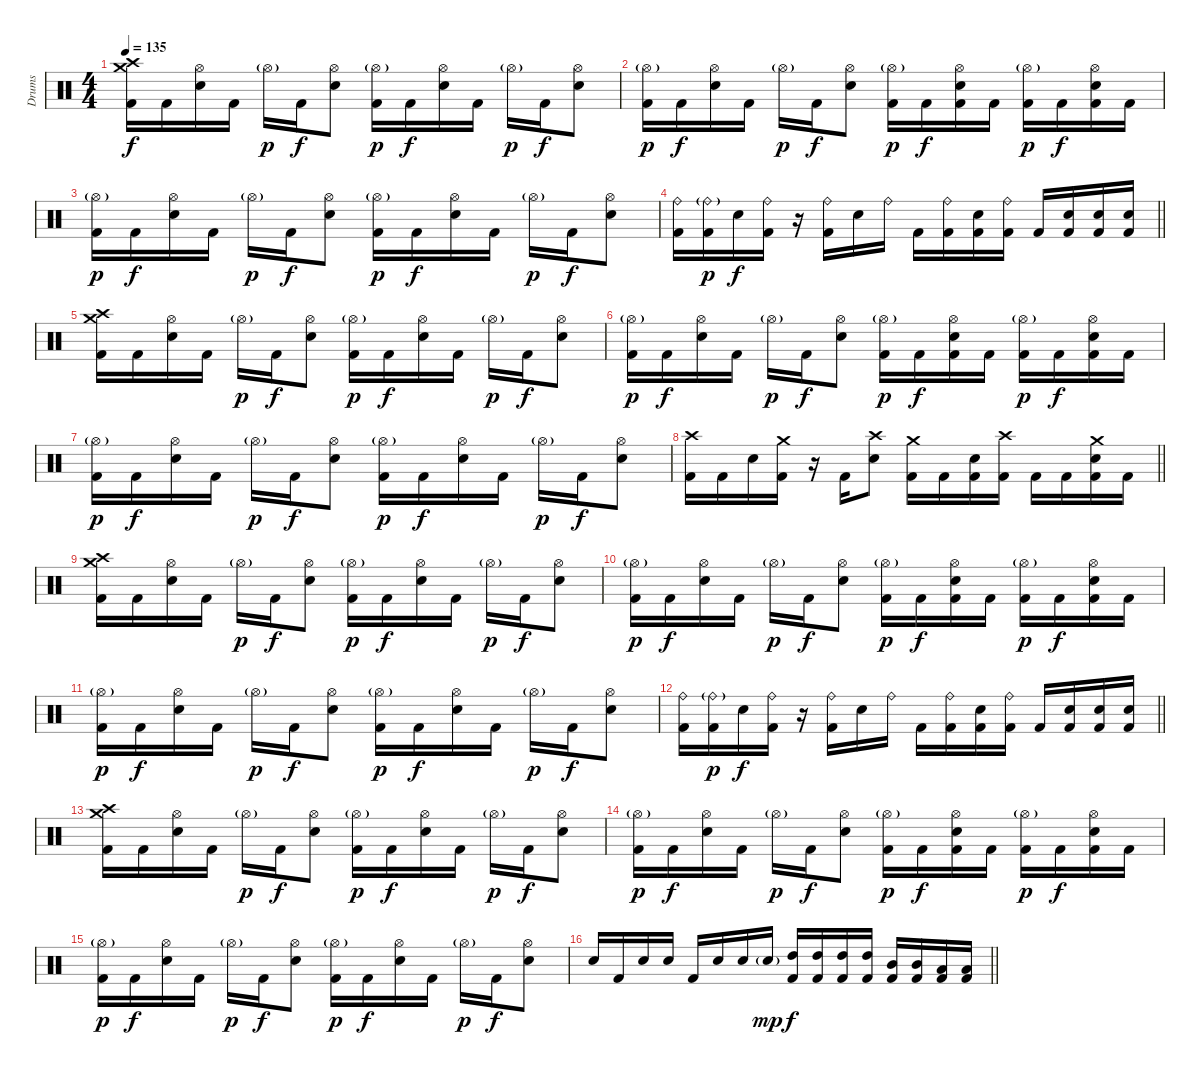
\track ("Drums" "Drums") {instrument percussion}
\staff {score}
\articulation defaults
\ts (4 4)
\tempo 135
\clef neutral
\ks c
("Crash high (hit)" "Crash medium (hit)" "Kick (hit) 2").16{dy f} "Kick (hit) 2".16 ("Hi-Hat (open)" "Electric Snare (hit)").16 "Kick (hit) 2".16 "Hi-Hat (open)"{g}.16{dy p} "Kick (hit) 2".16{dy f} ("Hi-Hat (open)" "Electric Snare (hit)").8 ("Hi-Hat (open)"{g} "Kick (hit) 2").16{dy p} "Kick (hit) 2".16{dy f} ("Hi-Hat (open)" "Electric Snare (hit)").16 "Kick (hit) 2".16 "Hi-Hat (open)"{g}.16{dy p} "Kick (hit) 2".16{dy f} ("Hi-Hat (open)" "Electric Snare (hit)").8 |
("Hi-Hat (open)"{g} "Kick (hit) 2").16{dy p} "Kick (hit) 2".16{dy f} ("Hi-Hat (open)" "Electric Snare (hit)").16 "Kick (hit) 2".16 "Hi-Hat (open)"{g}.16{dy p} "Kick (hit) 2".16{dy f} ("Hi-Hat (open)" "Electric Snare (hit)").8 ("Hi-Hat (open)"{g} "Kick (hit) 2").16{dy p} "Kick (hit) 2".16{dy f} ("Hi-Hat (open)" "Electric Snare (hit)" "Kick (hit) 2").16 "Kick (hit) 2".16 ("Hi-Hat (open)"{g} "Kick (hit) 2").16{dy p} "Kick (hit) 2".16{dy f} ("Hi-Hat (open)" "Electric Snare (hit)" "Kick (hit) 2").16 "Kick (hit) 2".16 |
("Hi-Hat (open)"{g} "Kick (hit) 2").16{dy p} "Kick (hit) 2".16{dy f} ("Hi-Hat (open)" "Electric Snare (hit)").16 "Kick (hit) 2".16 "Hi-Hat (open)"{g}.16{dy p} "Kick (hit) 2".16{dy f} ("Hi-Hat (open)" "Electric Snare (hit)").8 ("Hi-Hat (open)"{g} "Kick (hit) 2").16{dy p} "Kick (hit) 2".16{dy f} ("Hi-Hat (open)" "Electric Snare (hit)").16 "Kick (hit) 2".16 "Hi-Hat (open)"{g}.16{dy p} "Kick (hit) 2".16{dy f} ("Hi-Hat (open)" "Electric Snare (hit)").8 |
\barLineRight lightlight
("Ride (bell)" "Kick (hit) 2").16 ("Ride (bell)"{g} "Kick (hit) 2").16{dy p} "Electric Snare (hit)".16{dy f} ("Ride (bell)" "Kick (hit) 2").16 r.16 ("Ride (bell)" "Kick (hit) 2").16 "Electric Snare (hit)".16 "Ride (bell)".16 "Kick (hit) 2".16 ("Ride (bell)" "Kick (hit) 2").16 ("Electric Snare (hit)" "Kick (hit) 2").16 ("Ride (bell)" "Kick (hit) 2").16 "Kick (hit) 2".16 ("Electric Snare (hit)" "Kick (hit) 2").16 ("Electric Snare (hit)" "Kick (hit) 2").16 ("Electric Snare (hit)" "Kick (hit) 2").16 |
("Crash high (hit)" "Crash medium (hit)" "Kick (hit) 2").16 "Kick (hit) 2".16 ("Hi-Hat (open)" "Electric Snare (hit)").16 "Kick (hit) 2".16 "Hi-Hat (open)"{g}.16{dy p} "Kick (hit) 2".16{dy f} ("Hi-Hat (open)" "Electric Snare (hit)").8 ("Hi-Hat (open)"{g} "Kick (hit) 2").16{dy p} "Kick (hit) 2".16{dy f} ("Hi-Hat (open)" "Electric Snare (hit)").16 "Kick (hit) 2".16 "Hi-Hat (open)"{g}.16{dy p} "Kick (hit) 2".16{dy f} ("Hi-Hat (open)" "Electric Snare (hit)").8 |
("Hi-Hat (open)"{g} "Kick (hit) 2").16{dy p} "Kick (hit) 2".16{dy f} ("Hi-Hat (open)" "Electric Snare (hit)").16 "Kick (hit) 2".16 "Hi-Hat (open)"{g}.16{dy p} "Kick (hit) 2".16{dy f} ("Hi-Hat (open)" "Electric Snare (hit)").8 ("Hi-Hat (open)"{g} "Kick (hit) 2").16{dy p} "Kick (hit) 2".16{dy f} ("Hi-Hat (open)" "Electric Snare (hit)" "Kick (hit) 2").16 "Kick (hit) 2".16 ("Hi-Hat (open)"{g} "Kick (hit) 2").16{dy p} "Kick (hit) 2".16{dy f} ("Hi-Hat (open)" "Electric Snare (hit)" "Kick (hit) 2").16 "Kick (hit) 2".16 |
("Hi-Hat (open)"{g} "Kick (hit) 2").16{dy p} "Kick (hit) 2".16{dy f} ("Hi-Hat (open)" "Electric Snare (hit)").16 "Kick (hit) 2".16 "Hi-Hat (open)"{g}.16{dy p} "Kick (hit) 2".16{dy f} ("Hi-Hat (open)" "Electric Snare (hit)").8 ("Hi-Hat (open)"{g} "Kick (hit) 2").16{dy p} "Kick (hit) 2".16{dy f} ("Hi-Hat (open)" "Electric Snare (hit)").16 "Kick (hit) 2".16 "Hi-Hat (open)"{g}.16{dy p} "Kick (hit) 2".16{dy f} ("Hi-Hat (open)" "Electric Snare (hit)").8 |
\barLineRight lightlight
("Crash high (hit)" "Kick (hit) 2").16 "Kick (hit) 2".16 "Electric Snare (hit)".16 ("Crash medium (hit)" "Kick (hit) 2").16 r.16 "Kick (hit) 2".16 ("Crash high (hit)" "Electric Snare (hit)").8 ("Crash medium (hit)" "Kick (hit) 2").16 "Kick (hit) 2".16 ("Electric Snare (hit)" "Kick (hit) 2").16 ("Crash high (hit)" "Kick (hit) 2").16 "Kick (hit) 2".16 "Kick (hit) 2".16 ("Crash medium (hit)" "Electric Snare (hit)" "Kick (hit) 2").16 "Kick (hit) 2".16 |
("Crash high (hit)" "Crash medium (hit)" "Kick (hit) 2").16 "Kick (hit) 2".16 ("Hi-Hat (open)" "Electric Snare (hit)").16 "Kick (hit) 2".16 "Hi-Hat (open)"{g}.16{dy p} "Kick (hit) 2".16{dy f} ("Hi-Hat (open)" "Electric Snare (hit)").8 ("Hi-Hat (open)"{g} "Kick (hit) 2").16{dy p} "Kick (hit) 2".16{dy f} ("Hi-Hat (open)" "Electric Snare (hit)").16 "Kick (hit) 2".16 "Hi-Hat (open)"{g}.16{dy p} "Kick (hit) 2".16{dy f} ("Hi-Hat (open)" "Electric Snare (hit)").8 |
("Hi-Hat (open)"{g} "Kick (hit) 2").16{dy p} "Kick (hit) 2".16{dy f} ("Hi-Hat (open)" "Electric Snare (hit)").16 "Kick (hit) 2".16 "Hi-Hat (open)"{g}.16{dy p} "Kick (hit) 2".16{dy f} ("Hi-Hat (open)" "Electric Snare (hit)").8 ("Hi-Hat (open)"{g} "Kick (hit) 2").16{dy p} "Kick (hit) 2".16{dy f} ("Hi-Hat (open)" "Electric Snare (hit)" "Kick (hit) 2").16 "Kick (hit) 2".16 ("Hi-Hat (open)"{g} "Kick (hit) 2").16{dy p} "Kick (hit) 2".16{dy f} ("Hi-Hat (open)" "Electric Snare (hit)" "Kick (hit) 2").16 "Kick (hit) 2".16 |
("Hi-Hat (open)"{g} "Kick (hit) 2").16{dy p} "Kick (hit) 2".16{dy f} ("Hi-Hat (open)" "Electric Snare (hit)").16 "Kick (hit) 2".16 "Hi-Hat (open)"{g}.16{dy p} "Kick (hit) 2".16{dy f} ("Hi-Hat (open)" "Electric Snare (hit)").8 ("Hi-Hat (open)"{g} "Kick (hit) 2").16{dy p} "Kick (hit) 2".16{dy f} ("Hi-Hat (open)" "Electric Snare (hit)").16 "Kick (hit) 2".16 "Hi-Hat (open)"{g}.16{dy p} "Kick (hit) 2".16{dy f} ("Hi-Hat (open)" "Electric Snare (hit)").8 |
\barLineRight lightlight
("Ride (bell)" "Kick (hit) 2").16 ("Ride (bell)"{g} "Kick (hit) 2").16{dy p} "Electric Snare (hit)".16{dy f} ("Ride (bell)" "Kick (hit) 2").16 r.16 ("Ride (bell)" "Kick (hit) 2").16 "Electric Snare (hit)".16 "Ride (bell)".16 "Kick (hit) 2".16 ("Ride (bell)" "Kick (hit) 2").16 ("Electric Snare (hit)" "Kick (hit) 2").16 ("Ride (bell)" "Kick (hit) 2").16 "Kick (hit) 2".16 ("Electric Snare (hit)" "Kick (hit) 2").16 ("Electric Snare (hit)" "Kick (hit) 2").16 ("Electric Snare (hit)" "Kick (hit) 2").16 |
("Crash high (hit)" "Crash medium (hit)" "Kick (hit) 2").16 "Kick (hit) 2".16 ("Hi-Hat (open)" "Electric Snare (hit)").16 "Kick (hit) 2".16 "Hi-Hat (open)"{g}.16{dy p} "Kick (hit) 2".16{dy f} ("Hi-Hat (open)" "Electric Snare (hit)").8 ("Hi-Hat (open)"{g} "Kick (hit) 2").16{dy p} "Kick (hit) 2".16{dy f} ("Hi-Hat (open)" "Electric Snare (hit)").16 "Kick (hit) 2".16 "Hi-Hat (open)"{g}.16{dy p} "Kick (hit) 2".16{dy f} ("Hi-Hat (open)" "Electric Snare (hit)").8 |
("Hi-Hat (open)"{g} "Kick (hit) 2").16{dy p} "Kick (hit) 2".16{dy f} ("Hi-Hat (open)" "Electric Snare (hit)").16 "Kick (hit) 2".16 "Hi-Hat (open)"{g}.16{dy p} "Kick (hit) 2".16{dy f} ("Hi-Hat (open)" "Electric Snare (hit)").8 ("Hi-Hat (open)"{g} "Kick (hit) 2").16{dy p} "Kick (hit) 2".16{dy f} ("Hi-Hat (open)" "Electric Snare (hit)" "Kick (hit) 2").16 "Kick (hit) 2".16 ("Hi-Hat (open)"{g} "Kick (hit) 2").16{dy p} "Kick (hit) 2".16{dy f} ("Hi-Hat (open)" "Electric Snare (hit)" "Kick (hit) 2").16 "Kick (hit) 2".16 |
("Hi-Hat (open)"{g} "Kick (hit) 2").16{dy p} "Kick (hit) 2".16{dy f} ("Hi-Hat (open)" "Electric Snare (hit)").16 "Kick (hit) 2".16 "Hi-Hat (open)"{g}.16{dy p} "Kick (hit) 2".16{dy f} ("Hi-Hat (open)" "Electric Snare (hit)").8 ("Hi-Hat (open)"{g} "Kick (hit) 2").16{dy p} "Kick (hit) 2".16{dy f} ("Hi-Hat (open)" "Electric Snare (hit)").16 "Kick (hit) 2".16 "Hi-Hat (open)"{g}.16{dy p} "Kick (hit) 2".16{dy f} ("Hi-Hat (open)" "Electric Snare (hit)").8 |
\barLineRight lightlight "Electric Snare (hit)".16 "Kick (hit) 2".16 "Electric Snare (hit)".16 "Electric Snare (hit)".16 "Kick (hit) 2".16 "Electric Snare (hit)".16 "Electric Snare (hit)".16 "Electric Snare (hit)"{g}.16{dy mp}
("High Tom (hit)" "Kick (hit) 2").16{dy f} ("High Tom (hit)" "Kick (hit) 2").16 ("High Tom (hit)" "Kick (hit) 2").16 ("High Tom (hit)" "Kick (hit) 2").16 ("Mid Tom (hit)" "Kick (hit) 2").16 ("Mid Tom (hit)" "Kick (hit) 2").16 ("Low Tom (hit)" "Kick (hit) 2").16 ("Low Tom (hit)" "Kick (hit) 2").16
